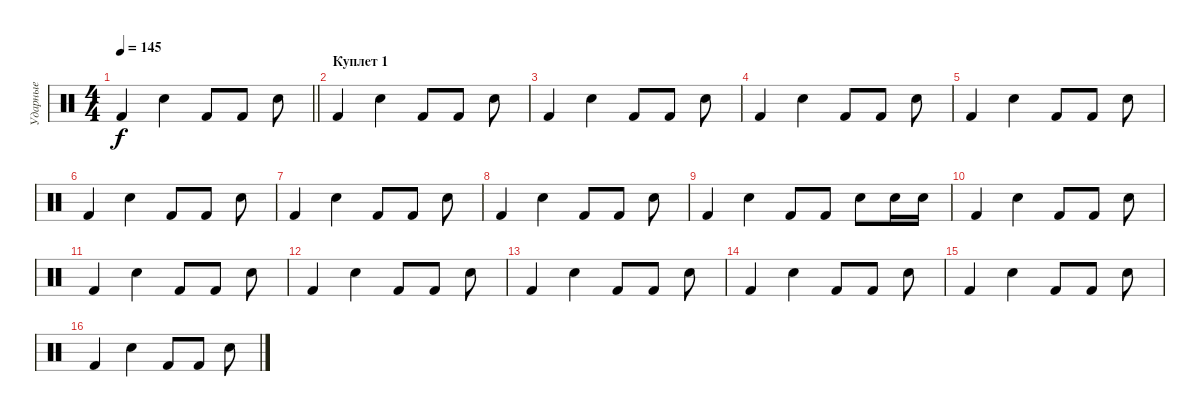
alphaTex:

\track ("Ударные" "Ударные") {instrument percussion}
\staff {score}
\articulation defaults
\ts (4 4)
\tempo 145
\clef neutral
\barLineRight lightlight
\ks c "Kick (hit) 2".4{dy f} "Snare (hit) 2".4 "Kick (hit) 2".8 "Kick (hit) 2".8 "Snare (hit) 2".8
|
\section ("" "Куплет 1")
"Kick (hit) 2".4 "Snare (hit) 2".4 "Kick (hit) 2".8 "Kick (hit) 2".8 "Snare (hit) 2".8 |
"Kick (hit) 2".4 "Snare (hit) 2".4 "Kick (hit) 2".8 "Kick (hit) 2".8 "Snare (hit) 2".8 |
"Kick (hit) 2".4 "Snare (hit) 2".4 "Kick (hit) 2".8 "Kick (hit) 2".8 "Snare (hit) 2".8 |
"Kick (hit) 2".4 "Snare (hit) 2".4 "Kick (hit) 2".8 "Kick (hit) 2".8 "Snare (hit) 2".8 |
"Kick (hit) 2".4 "Snare (hit) 2".4 "Kick (hit) 2".8 "Kick (hit) 2".8 "Snare (hit) 2".8 |
"Kick (hit) 2".4 "Snare (hit) 2".4 "Kick (hit) 2".8 "Kick (hit) 2".8 "Snare (hit) 2".8 |
"Kick (hit) 2".4 "Snare (hit) 2".4 "Kick (hit) 2".8 "Kick (hit) 2".8 "Snare (hit) 2".8 |
"Kick (hit) 2".4 "Snare (hit) 2".4 "Kick (hit) 2".8 "Kick (hit) 2".8 "Snare (hit) 2".8 "Snare (hit) 2".16 "Snare (hit) 2".16 |
"Kick (hit) 2".4 "Snare (hit) 2".4 "Kick (hit) 2".8 "Kick (hit) 2".8 "Snare (hit) 2".8 |
"Kick (hit) 2".4 "Snare (hit) 2".4 "Kick (hit) 2".8 "Kick (hit) 2".8 "Snare (hit) 2".8 |
"Kick (hit) 2".4 "Snare (hit) 2".4 "Kick (hit) 2".8 "Kick (hit) 2".8 "Snare (hit) 2".8 |
"Kick (hit) 2".4 "Snare (hit) 2".4 "Kick (hit) 2".8 "Kick (hit) 2".8 "Snare (hit) 2".8 |
"Kick (hit) 2".4 "Snare (hit) 2".4 "Kick (hit) 2".8 "Kick (hit) 2".8 "Snare (hit) 2".8 |
"Kick (hit) 2".4 "Snare (hit) 2".4 "Kick (hit) 2".8 "Kick (hit) 2".8 "Snare (hit) 2".8 |
"Kick (hit) 2".4 "Snare (hit) 2".4 "Kick (hit) 2".8 "Kick (hit) 2".8 "Snare (hit) 2".8
